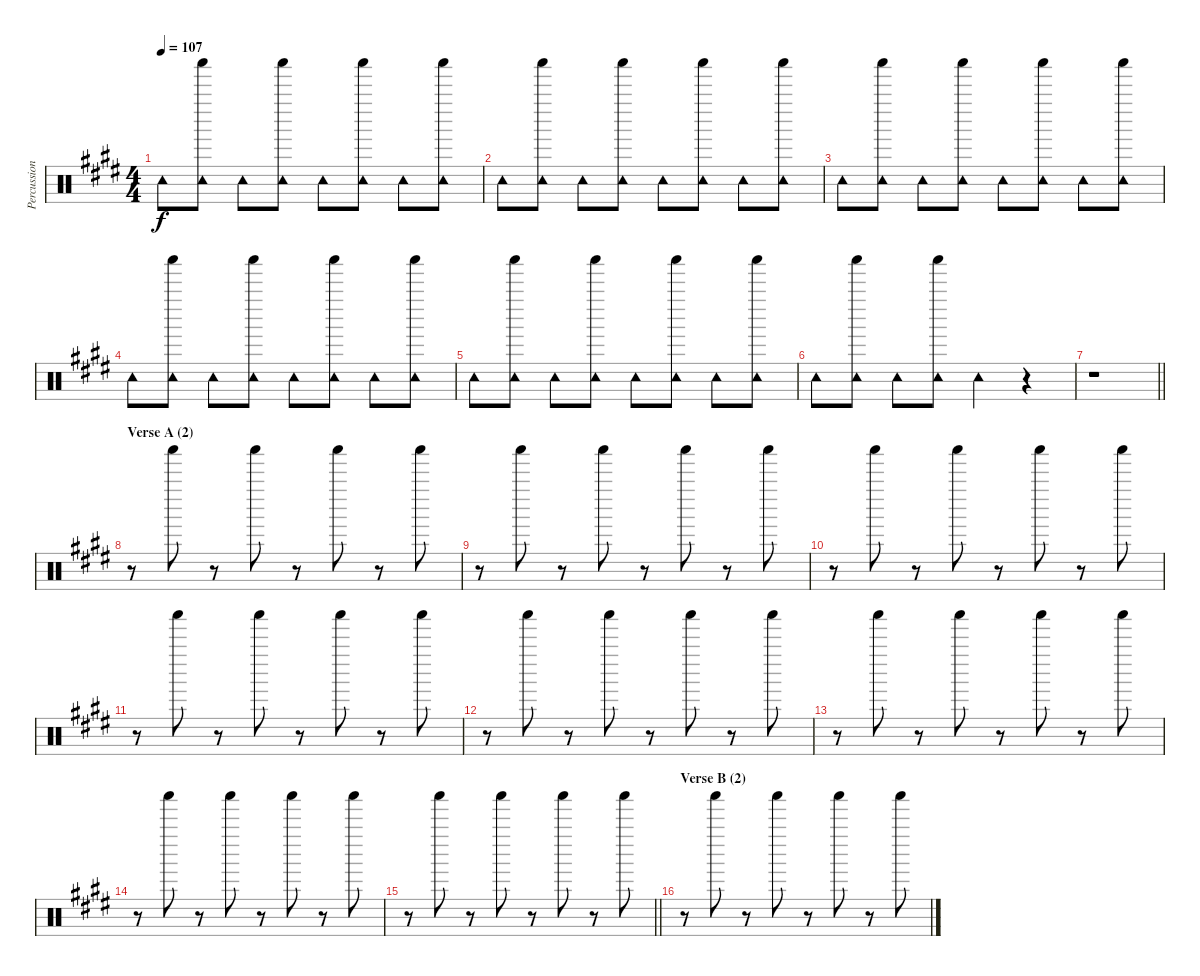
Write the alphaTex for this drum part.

\track ("Percussion" "Percussion") {instrument percussion}
\staff {score}
\articulation defaults
\ts (4 4)
\tempo 107
\clef neutral
\ks e "Tambourine (hit)".8{dy f}
("Shaker (hit)" "Tambourine (hit)").8 "Tambourine (hit)".8 ("Shaker (hit)" "Tambourine (hit)").8 "Tambourine (hit)".8 ("Shaker (hit)" "Tambourine (hit)").8 "Tambourine (hit)".8 ("Shaker (hit)" "Tambourine (hit)").8 |
"Tambourine (hit)".8 ("Shaker (hit)" "Tambourine (hit)").8 "Tambourine (hit)".8 ("Shaker (hit)" "Tambourine (hit)").8 "Tambourine (hit)".8 ("Shaker (hit)" "Tambourine (hit)").8 "Tambourine (hit)".8 ("Shaker (hit)" "Tambourine (hit)").8 |
"Tambourine (hit)".8 ("Shaker (hit)" "Tambourine (hit)").8 "Tambourine (hit)".8 ("Shaker (hit)" "Tambourine (hit)").8 "Tambourine (hit)".8 ("Shaker (hit)" "Tambourine (hit)").8 "Tambourine (hit)".8 ("Shaker (hit)" "Tambourine (hit)").8 |
"Tambourine (hit)".8 ("Shaker (hit)" "Tambourine (hit)").8 "Tambourine (hit)".8 ("Shaker (hit)" "Tambourine (hit)").8 "Tambourine (hit)".8 ("Shaker (hit)" "Tambourine (hit)").8 "Tambourine (hit)".8 ("Shaker (hit)" "Tambourine (hit)").8 |
"Tambourine (hit)".8 ("Shaker (hit)" "Tambourine (hit)").8 "Tambourine (hit)".8 ("Shaker (hit)" "Tambourine (hit)").8 "Tambourine (hit)".8 ("Shaker (hit)" "Tambourine (hit)").8 "Tambourine (hit)".8 ("Shaker (hit)" "Tambourine (hit)").8 |
"Tambourine (hit)".8 ("Shaker (hit)" "Tambourine (hit)").8 "Tambourine (hit)".8 ("Shaker (hit)" "Tambourine (hit)").8 "Tambourine (hit)".4 r.4 |
\barLineRight lightlight
r.1 |
\section ("" "Verse A (2)")
r.8 "Shaker (hit)".8 r.8 "Shaker (hit)".8 r.8 "Shaker (hit)".8 r.8 "Shaker (hit)".8 |
r.8 "Shaker (hit)".8 r.8 "Shaker (hit)".8 r.8 "Shaker (hit)".8 r.8 "Shaker (hit)".8 |
r.8 "Shaker (hit)".8 r.8 "Shaker (hit)".8 r.8 "Shaker (hit)".8 r.8 "Shaker (hit)".8 |
r.8 "Shaker (hit)".8 r.8 "Shaker (hit)".8 r.8 "Shaker (hit)".8 r.8 "Shaker (hit)".8 |
r.8 "Shaker (hit)".8 r.8 "Shaker (hit)".8 r.8 "Shaker (hit)".8 r.8 "Shaker (hit)".8 |
r.8 "Shaker (hit)".8 r.8 "Shaker (hit)".8 r.8 "Shaker (hit)".8 r.8 "Shaker (hit)".8 |
r.8 "Shaker (hit)".8 r.8 "Shaker (hit)".8 r.8 "Shaker (hit)".8 r.8 "Shaker (hit)".8 |
\barLineRight lightlight
r.8 "Shaker (hit)".8 r.8 "Shaker (hit)".8 r.8 "Shaker (hit)".8 r.8 "Shaker (hit)".8 |
\section ("" "Verse B (2)")
r.8 "Shaker (hit)".8 r.8 "Shaker (hit)".8 r.8 "Shaker (hit)".8 r.8 "Shaker (hit)".8
